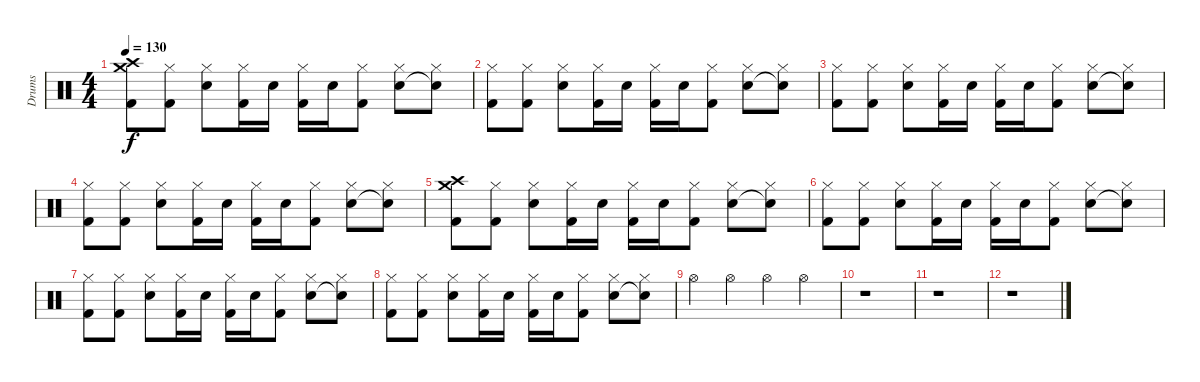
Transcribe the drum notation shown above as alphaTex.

\track ("Drums" "Drums") {instrument percussion}
\staff {score}
\articulation defaults
\ts (4 4)
\tempo 130
\clef neutral
\ks c
("Crash medium (hit)" "Crash high (hit)" "Kick (hit) 2").8{dy f} ("Hi-Hat (closed)" "Kick (hit) 2").8 ("Hi-Hat (closed)" "Snare (hit) 2").8 ("Hi-Hat (closed)" "Kick (hit) 2").16 "Snare (hit) 2".16 ("Hi-Hat (closed)" "Kick (hit) 2").16 "Snare (hit) 2".16 ("Hi-Hat (closed)" "Kick (hit) 2").8 ("Hi-Hat (closed)" "Snare (hit) 2").8 ("Hi-Hat (closed)" "Snare (hit)"{t}).8 |
("Hi-Hat (closed)" "Kick (hit) 2").8 ("Hi-Hat (closed)" "Kick (hit) 2").8 ("Hi-Hat (closed)" "Snare (hit) 2").8 ("Hi-Hat (closed)" "Kick (hit) 2").16 "Snare (hit) 2".16 ("Hi-Hat (closed)" "Kick (hit) 2").16 "Snare (hit) 2".16 ("Hi-Hat (closed)" "Kick (hit) 2").8 ("Hi-Hat (closed)" "Snare (hit) 2").8 ("Hi-Hat (closed)" "Snare (hit)"{t}).8 |
("Hi-Hat (closed)" "Kick (hit) 2").8 ("Hi-Hat (closed)" "Kick (hit) 2").8 ("Hi-Hat (closed)" "Snare (hit) 2").8 ("Hi-Hat (closed)" "Kick (hit) 2").16 "Snare (hit) 2".16 ("Hi-Hat (closed)" "Kick (hit) 2").16 "Snare (hit) 2".16 ("Hi-Hat (closed)" "Kick (hit) 2").8 ("Hi-Hat (closed)" "Snare (hit) 2").8 ("Hi-Hat (closed)" "Snare (hit)"{t}).8 |
("Hi-Hat (closed)" "Kick (hit) 2").8 ("Hi-Hat (closed)" "Kick (hit) 2").8 ("Hi-Hat (closed)" "Snare (hit) 2").8 ("Hi-Hat (closed)" "Kick (hit) 2").16 "Snare (hit) 2".16 ("Hi-Hat (closed)" "Kick (hit) 2").16 "Snare (hit) 2".16 ("Hi-Hat (closed)" "Kick (hit) 2").8 ("Hi-Hat (closed)" "Snare (hit) 2").8 ("Hi-Hat (closed)" "Snare (hit)"{t}).8 |
("Crash medium (hit)" "Crash high (hit)" "Kick (hit) 2").8 ("Hi-Hat (closed)" "Kick (hit) 2").8 ("Hi-Hat (closed)" "Snare (hit) 2").8 ("Hi-Hat (closed)" "Kick (hit) 2").16 "Snare (hit) 2".16 ("Hi-Hat (closed)" "Kick (hit) 2").16 "Snare (hit) 2".16 ("Hi-Hat (closed)" "Kick (hit) 2").8 ("Hi-Hat (closed)" "Snare (hit) 2").8 ("Hi-Hat (closed)" "Snare (hit)"{t}).8 |
("Hi-Hat (closed)" "Kick (hit) 2").8 ("Hi-Hat (closed)" "Kick (hit) 2").8 ("Hi-Hat (closed)" "Snare (hit) 2").8 ("Hi-Hat (closed)" "Kick (hit) 2").16 "Snare (hit) 2".16 ("Hi-Hat (closed)" "Kick (hit) 2").16 "Snare (hit) 2".16 ("Hi-Hat (closed)" "Kick (hit) 2").8 ("Hi-Hat (closed)" "Snare (hit) 2").8 ("Hi-Hat (closed)" "Snare (hit)"{t}).8 |
("Hi-Hat (closed)" "Kick (hit) 2").8 ("Hi-Hat (closed)" "Kick (hit) 2").8 ("Hi-Hat (closed)" "Snare (hit) 2").8 ("Hi-Hat (closed)" "Kick (hit) 2").16 "Snare (hit) 2".16 ("Hi-Hat (closed)" "Kick (hit) 2").16 "Snare (hit) 2".16 ("Hi-Hat (closed)" "Kick (hit) 2").8 ("Hi-Hat (closed)" "Snare (hit) 2").8 ("Hi-Hat (closed)" "Snare (hit)"{t}).8 |
("Hi-Hat (closed)" "Kick (hit) 2").8 ("Hi-Hat (closed)" "Kick (hit) 2").8 ("Hi-Hat (closed)" "Snare (hit) 2").8 ("Hi-Hat (closed)" "Kick (hit) 2").16 "Snare (hit) 2".16 ("Hi-Hat (closed)" "Kick (hit) 2").16 "Snare (hit) 2".16 ("Hi-Hat (closed)" "Kick (hit) 2").8 ("Hi-Hat (closed)" "Snare (hit) 2").8 ("Hi-Hat (closed)" "Snare (hit)"{t}).8 |
"Hi-Hat (open)".4 "Hi-Hat (open)".4 "Hi-Hat (open)".4 "Hi-Hat (open)".4 |
r.1 |
r.1 |
r.1
